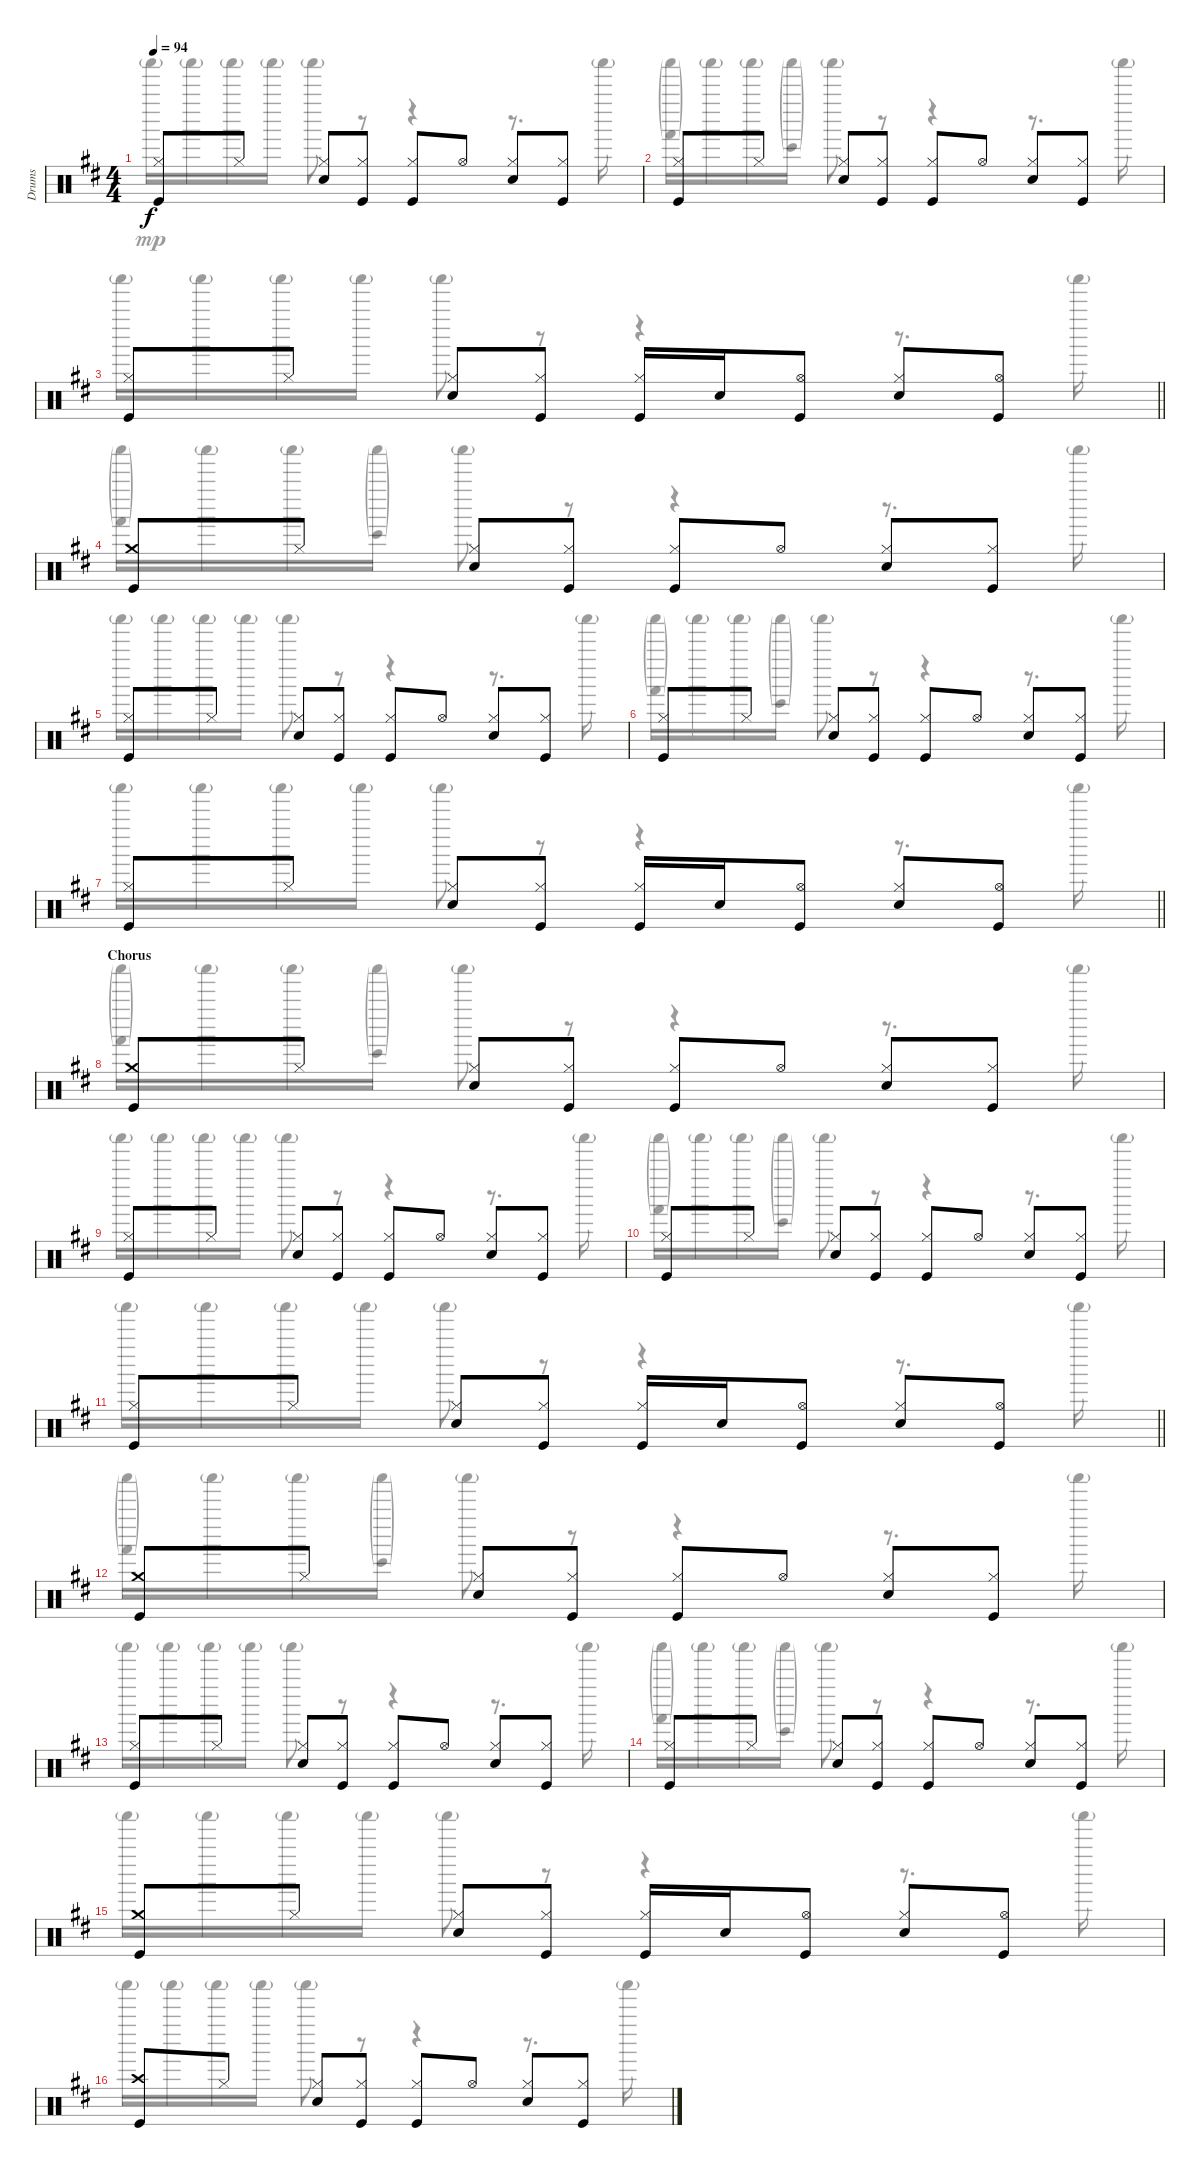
\track ("Drums" "Drums") {instrument percussion}
\staff {score}
\articulation defaults
\voice
\ts (4 4)
\tempo 94
\clef neutral
\ks d
("Hi-Hat (closed)" "Kick (hit)").8{dy f} "Hi-Hat (closed)".8 ("Hi-Hat (closed)" "Snare (hit) 2").8 ("Hi-Hat (closed)" "Kick (hit)").8 ("Hi-Hat (closed)" "Kick (hit)").8 "Hi-Hat (open)".8 ("Hi-Hat (closed)" "Snare (hit) 2").8 ("Hi-Hat (closed)" "Kick (hit)").8 |
("Hi-Hat (closed)" "Kick (hit)").8 "Hi-Hat (closed)".8 ("Hi-Hat (closed)" "Snare (hit) 2").8 ("Hi-Hat (closed)" "Kick (hit)").8 ("Hi-Hat (closed)" "Kick (hit)").8 "Hi-Hat (open)".8 ("Hi-Hat (closed)" "Snare (hit) 2").8 ("Hi-Hat (closed)" "Kick (hit)").8 |
\barLineRight lightlight
("Hi-Hat (closed)" "Kick (hit)").8 "Hi-Hat (closed)".8 ("Hi-Hat (closed)" "Snare (hit) 2").8 ("Hi-Hat (closed)" "Kick (hit)").8 ("Hi-Hat (closed)" "Kick (hit)").16 "Snare (hit) 2".16 ("Hi-Hat (open)" "Kick (hit)").8 ("Hi-Hat (closed)" "Snare (hit) 2").8 ("Hi-Hat (open)" "Kick (hit)").8 |
\section ("" "")
("Crash medium (hit)" "Kick (hit)").8 "Hi-Hat (closed)".8 ("Hi-Hat (closed)" "Snare (hit) 2").8 ("Hi-Hat (closed)" "Kick (hit)").8 ("Hi-Hat (closed)" "Kick (hit)").8 "Hi-Hat (open)".8 ("Hi-Hat (closed)" "Snare (hit) 2").8 ("Hi-Hat (closed)" "Kick (hit)").8 |
("Hi-Hat (closed)" "Kick (hit)").8 "Hi-Hat (closed)".8 ("Hi-Hat (closed)" "Snare (hit) 2").8 ("Hi-Hat (closed)" "Kick (hit)").8 ("Hi-Hat (closed)" "Kick (hit)").8 "Hi-Hat (open)".8 ("Hi-Hat (closed)" "Snare (hit) 2").8 ("Hi-Hat (closed)" "Kick (hit)").8 |
("Hi-Hat (closed)" "Kick (hit)").8 "Hi-Hat (closed)".8 ("Hi-Hat (closed)" "Snare (hit) 2").8 ("Hi-Hat (closed)" "Kick (hit)").8 ("Hi-Hat (closed)" "Kick (hit)").8 "Hi-Hat (open)".8 ("Hi-Hat (closed)" "Snare (hit) 2").8 ("Hi-Hat (closed)" "Kick (hit)").8 |
\barLineRight lightlight
("Hi-Hat (closed)" "Kick (hit)").8 "Hi-Hat (closed)".8 ("Hi-Hat (closed)" "Snare (hit) 2").8 ("Hi-Hat (closed)" "Kick (hit)").8 ("Hi-Hat (closed)" "Kick (hit)").16 "Snare (hit) 2".16 ("Hi-Hat (open)" "Kick (hit)").8 ("Hi-Hat (closed)" "Snare (hit) 2").8 ("Hi-Hat (open)" "Kick (hit)").8 |
\section ("" "Chorus")
("Crash medium (hit)" "Kick (hit)").8 "Hi-Hat (closed)".8 ("Hi-Hat (closed)" "Snare (hit) 2").8 ("Hi-Hat (closed)" "Kick (hit)").8 ("Hi-Hat (closed)" "Kick (hit)").8 "Hi-Hat (open)".8 ("Hi-Hat (closed)" "Snare (hit) 2").8 ("Hi-Hat (closed)" "Kick (hit)").8 |
("Hi-Hat (closed)" "Kick (hit)").8 "Hi-Hat (closed)".8 ("Hi-Hat (closed)" "Snare (hit) 2").8 ("Hi-Hat (closed)" "Kick (hit)").8 ("Hi-Hat (closed)" "Kick (hit)").8 "Hi-Hat (open)".8 ("Hi-Hat (closed)" "Snare (hit) 2").8 ("Hi-Hat (closed)" "Kick (hit)").8 |
("Hi-Hat (closed)" "Kick (hit)").8 "Hi-Hat (closed)".8 ("Hi-Hat (closed)" "Snare (hit) 2").8 ("Hi-Hat (closed)" "Kick (hit)").8 ("Hi-Hat (closed)" "Kick (hit)").8 "Hi-Hat (open)".8 ("Hi-Hat (closed)" "Snare (hit) 2").8 ("Hi-Hat (closed)" "Kick (hit)").8 |
\barLineRight lightlight
("Hi-Hat (closed)" "Kick (hit)").8 "Hi-Hat (closed)".8 ("Hi-Hat (closed)" "Snare (hit) 2").8 ("Hi-Hat (closed)" "Kick (hit)").8 ("Hi-Hat (closed)" "Kick (hit)").16 "Snare (hit) 2".16 ("Hi-Hat (open)" "Kick (hit)").8 ("Hi-Hat (closed)" "Snare (hit) 2").8 ("Hi-Hat (open)" "Kick (hit)").8 |
\section ("" "")
("Crash medium (hit)" "Kick (hit)").8 "Hi-Hat (closed)".8 ("Hi-Hat (closed)" "Snare (hit) 2").8 ("Hi-Hat (closed)" "Kick (hit)").8 ("Hi-Hat (closed)" "Kick (hit)").8 "Hi-Hat (open)".8 ("Hi-Hat (closed)" "Snare (hit) 2").8 ("Hi-Hat (closed)" "Kick (hit)").8 |
("Hi-Hat (closed)" "Kick (hit)").8 "Hi-Hat (closed)".8 ("Hi-Hat (closed)" "Snare (hit) 2").8 ("Hi-Hat (closed)" "Kick (hit)").8 ("Hi-Hat (closed)" "Kick (hit)").8 "Hi-Hat (open)".8 ("Hi-Hat (closed)" "Snare (hit) 2").8 ("Hi-Hat (closed)" "Kick (hit)").8 |
("Hi-Hat (closed)" "Kick (hit)").8 "Hi-Hat (closed)".8 ("Hi-Hat (closed)" "Snare (hit) 2").8 ("Hi-Hat (closed)" "Kick (hit)").8 ("Hi-Hat (closed)" "Kick (hit)").8 "Hi-Hat (open)".8 ("Hi-Hat (closed)" "Snare (hit) 2").8 ("Hi-Hat (closed)" "Kick (hit)").8 |
("Crash medium (hit)" "Kick (hit)").8 "Hi-Hat (closed)".8 ("Hi-Hat (closed)" "Snare (hit) 2").8 ("Hi-Hat (closed)" "Kick (hit)").8 ("Hi-Hat (closed)" "Kick (hit)").16 "Snare (hit) 2".16 ("Hi-Hat (open)" "Kick (hit)").8 ("Hi-Hat (closed)" "Snare (hit) 2").8 ("Hi-Hat (open)" "Kick (hit)").8 |
("Crash high (hit)" "Kick (hit)").8 "Hi-Hat (closed)".8 ("Hi-Hat (closed)" "Snare (hit) 2").8 ("Hi-Hat (closed)" "Kick (hit)").8 ("Hi-Hat (closed)" "Kick (hit)").8 "Hi-Hat (open)".8 ("Hi-Hat (closed)" "Snare (hit) 2").8 ("Hi-Hat (closed)" "Kick (hit)").8
\voice
\clef neutral
\ottava regular
\simile none
\ks d "Shaker (hit)"{g}.16{dy mp} "Shaker (hit)"{g}.16 "Shaker (hit)"{g}.16 "Shaker (hit)"{g}.16 "Shaker (hit)"{g}.8
r.8 r.4 r.8{d} "Shaker (hit)"{g}.16 |
("Shaker (hit)"{g} "Hand (hit)"{g}).16 "Shaker (hit)"{g}.16 "Shaker (hit)"{g}.16 ("Shaker (hit)"{g} "Bongo High (hit)"{g}).16 "Shaker (hit)"{g}.8 r.8 r.4 r.8{d} "Shaker (hit)"{g}.16 |
\barLineRight lightlight "Shaker (hit)"{g}.16 "Shaker (hit)"{g}.16 "Shaker (hit)"{g}.16 "Shaker (hit)"{g}.16 "Shaker (hit)"{g}.8
r.8 r.4 r.8{d} "Shaker (hit)"{g}.16 |
("Shaker (hit)"{g} "Hand (hit)"{g}).16 "Shaker (hit)"{g}.16 "Shaker (hit)"{g}.16 ("Shaker (hit)"{g} "Bongo High (hit)"{g}).16 "Shaker (hit)"{g}.8 r.8 r.4 r.8{d} "Shaker (hit)"{g}.16 |
"Shaker (hit)"{g}.16 "Shaker (hit)"{g}.16 "Shaker (hit)"{g}.16 "Shaker (hit)"{g}.16 "Shaker (hit)"{g}.8 r.8 r.4 r.8{d} "Shaker (hit)"{g}.16 |
("Shaker (hit)"{g} "Hand (hit)"{g}).16 "Shaker (hit)"{g}.16 "Shaker (hit)"{g}.16 ("Shaker (hit)"{g} "Bongo High (hit)"{g}).16 "Shaker (hit)"{g}.8 r.8 r.4 r.8{d} "Shaker (hit)"{g}.16 |
\barLineRight lightlight "Shaker (hit)"{g}.16 "Shaker (hit)"{g}.16 "Shaker (hit)"{g}.16 "Shaker (hit)"{g}.16 "Shaker (hit)"{g}.8
r.8 r.4 r.8{d} "Shaker (hit)"{g}.16 |
("Shaker (hit)"{g} "Hand (hit)"{g}).16 "Shaker (hit)"{g}.16 "Shaker (hit)"{g}.16 ("Shaker (hit)"{g} "Bongo High (hit)"{g}).16 "Shaker (hit)"{g}.8 r.8 r.4 r.8{d} "Shaker (hit)"{g}.16 |
"Shaker (hit)"{g}.16 "Shaker (hit)"{g}.16 "Shaker (hit)"{g}.16 "Shaker (hit)"{g}.16 "Shaker (hit)"{g}.8 r.8 r.4 r.8{d} "Shaker (hit)"{g}.16 |
("Shaker (hit)"{g} "Hand (hit)"{g}).16 "Shaker (hit)"{g}.16 "Shaker (hit)"{g}.16 ("Shaker (hit)"{g} "Bongo High (hit)"{g}).16 "Shaker (hit)"{g}.8 r.8 r.4 r.8{d} "Shaker (hit)"{g}.16 |
\barLineRight lightlight "Shaker (hit)"{g}.16 "Shaker (hit)"{g}.16 "Shaker (hit)"{g}.16 "Shaker (hit)"{g}.16 "Shaker (hit)"{g}.8
r.8 r.4 r.8{d} "Shaker (hit)"{g}.16 |
("Shaker (hit)"{g} "Hand (hit)"{g}).16 "Shaker (hit)"{g}.16 "Shaker (hit)"{g}.16 ("Shaker (hit)"{g} "Bongo High (hit)"{g}).16 "Shaker (hit)"{g}.8 r.8 r.4 r.8{d} "Shaker (hit)"{g}.16 |
"Shaker (hit)"{g}.16 "Shaker (hit)"{g}.16 "Shaker (hit)"{g}.16 "Shaker (hit)"{g}.16 "Shaker (hit)"{g}.8 r.8 r.4 r.8{d} "Shaker (hit)"{g}.16 |
("Shaker (hit)"{g} "Hand (hit)"{g}).16 "Shaker (hit)"{g}.16 "Shaker (hit)"{g}.16 ("Shaker (hit)"{g} "Bongo High (hit)"{g}).16 "Shaker (hit)"{g}.8 r.8 r.4 r.8{d} "Shaker (hit)"{g}.16 |
"Shaker (hit)"{g}.16 "Shaker (hit)"{g}.16 "Shaker (hit)"{g}.16 "Shaker (hit)"{g}.16 "Shaker (hit)"{g}.8 r.8 r.4 r.8{d} "Shaker (hit)"{g}.16 |
"Shaker (hit)"{g}.16 "Shaker (hit)"{g}.16 "Shaker (hit)"{g}.16 "Shaker (hit)"{g}.16 "Shaker (hit)"{g}.8 r.8 r.4 r.8{d} "Shaker (hit)"{g}.16
